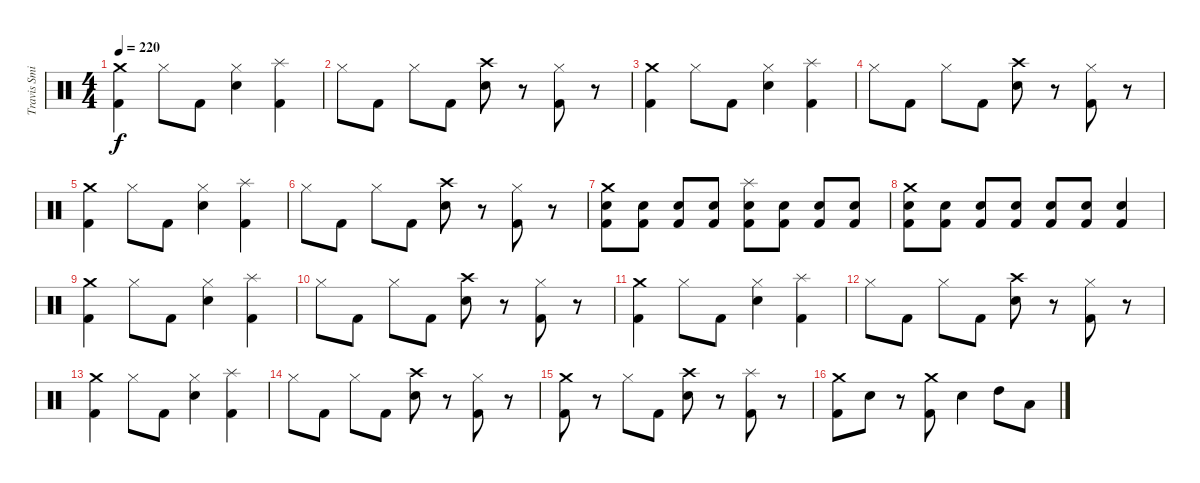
\track ("Travis Smith" "Travis Smi") {instrument percussion}
\staff {score}
\articulation defaults
\ts (4 4)
\tempo 220
\clef neutral
\ks c
("Crash medium (hit)" "Kick (hit) 2").4{dy f} "Hi-Hat (closed)".8 "Kick (hit) 2".8 ("Hi-Hat (closed)" "Electric Snare (hit)").4 ("Splash (hit)" "Kick (hit) 2").4 |
"Hi-Hat (closed)".8 "Kick (hit) 2".8 "Hi-Hat (closed)".8 "Kick (hit) 2".8 ("Crash high (hit)" "Electric Snare (hit)").8 r.8 ("Hi-Hat (closed)" "Kick (hit) 2").8 r.8 |
("Crash medium (hit)" "Kick (hit) 2").4 "Hi-Hat (closed)".8 "Kick (hit) 2".8 ("Hi-Hat (closed)" "Electric Snare (hit)").4 ("Splash (hit)" "Kick (hit) 2").4 |
"Hi-Hat (closed)".8 "Kick (hit) 2".8 "Hi-Hat (closed)".8 "Kick (hit) 2".8 ("Crash high (hit)" "Electric Snare (hit)").8 r.8 ("Hi-Hat (closed)" "Kick (hit) 2").8 r.8 |
("Crash medium (hit)" "Kick (hit) 2").4 "Hi-Hat (closed)".8 "Kick (hit) 2".8 ("Hi-Hat (closed)" "Electric Snare (hit)").4 ("Splash (hit)" "Kick (hit) 2").4 |
"Hi-Hat (closed)".8 "Kick (hit) 2".8 "Hi-Hat (closed)".8 "Kick (hit) 2".8 ("Crash high (hit)" "Electric Snare (hit)").8 r.8 ("Hi-Hat (closed)" "Kick (hit) 2").8 r.8 |
("Crash medium (hit)" "Snare (hit) 2" "Kick (hit) 2").8 ("Snare (hit) 2" "Kick (hit) 2").8 ("Snare (hit) 2" "Kick (hit) 2").8 ("Snare (hit) 2" "Kick (hit) 2").8 ("Splash (hit)" "Electric Snare (hit)" "Kick (hit) 2").8 ("Electric Snare (hit)" "Kick (hit) 2").8 ("Electric Snare (hit)" "Kick (hit) 2").8 ("Electric Snare (hit)" "Kick (hit) 2").8 |
("Crash medium (hit)" "Electric Snare (hit)" "Kick (hit) 2").8 ("Electric Snare (hit)" "Kick (hit) 2").8 ("Electric Snare (hit)" "Kick (hit) 2").8 ("Electric Snare (hit)" "Kick (hit) 2").8 ("Electric Snare (hit)" "Kick (hit) 2").8 ("Electric Snare (hit)" "Kick (hit) 2").8 ("Electric Snare (hit)" "Kick (hit) 2").4 |
("Crash medium (hit)" "Kick (hit) 2").4 "Hi-Hat (closed)".8 "Kick (hit) 2".8 ("Hi-Hat (closed)" "Electric Snare (hit)").4 ("Splash (hit)" "Kick (hit) 2").4 |
"Hi-Hat (closed)".8 "Kick (hit) 2".8 "Hi-Hat (closed)".8 "Kick (hit) 2".8 ("Crash high (hit)" "Electric Snare (hit)").8 r.8 ("Hi-Hat (closed)" "Kick (hit) 2").8 r.8 |
("Crash medium (hit)" "Kick (hit) 2").4 "Hi-Hat (closed)".8 "Kick (hit) 2".8 ("Hi-Hat (closed)" "Electric Snare (hit)").4 ("Splash (hit)" "Kick (hit) 2").4 |
"Hi-Hat (closed)".8 "Kick (hit) 2".8 "Hi-Hat (closed)".8 "Kick (hit) 2".8 ("Crash high (hit)" "Electric Snare (hit)").8 r.8 ("Hi-Hat (closed)" "Kick (hit) 2").8 r.8 |
("Crash medium (hit)" "Kick (hit) 2").4 "Hi-Hat (closed)".8 "Kick (hit) 2".8 ("Hi-Hat (closed)" "Electric Snare (hit)").4 ("Splash (hit)" "Kick (hit) 2").4 |
"Hi-Hat (closed)".8 "Kick (hit) 2".8 "Hi-Hat (closed)".8 "Kick (hit) 2".8 ("Crash high (hit)" "Electric Snare (hit)").8 r.8 ("Hi-Hat (closed)" "Kick (hit) 2").8 r.8 |
("Crash medium (hit)" "Kick (hit) 2").8 r.8 "Hi-Hat (closed)".8 "Kick (hit) 2".8 ("Crash high (hit)" "Electric Snare (hit)").8 r.8 ("Splash (hit)" "Kick (hit) 2").8 r.8 |
("Crash medium (hit)" "Kick (hit) 2").8 "Electric Snare (hit)".8 r.8 ("Crash medium (hit)" "Kick (hit) 2").8 "Electric Snare (hit)".4 "High Tom (hit)".8 "Low Tom (hit)".8
